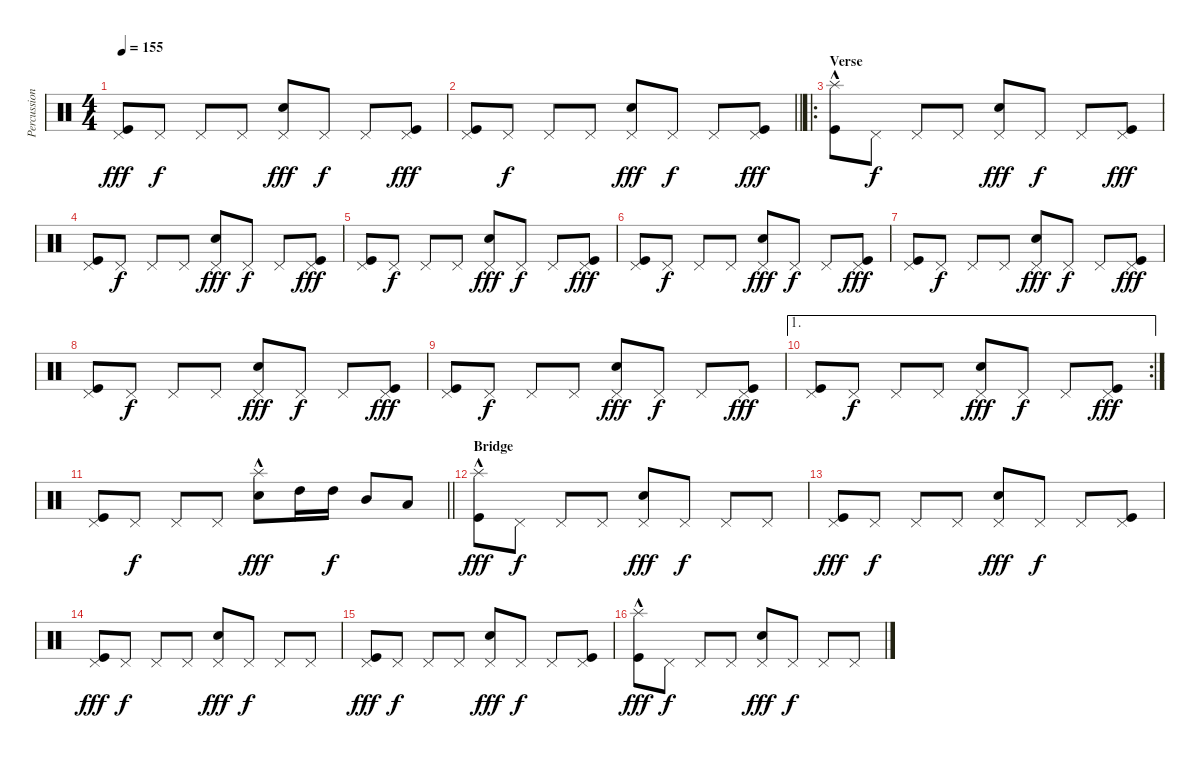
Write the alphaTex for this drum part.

\track ("Percussion" "Percussion") {instrument percussion}
\staff {score}
\articulation defaults
\ts (4 4)
\tempo 155
\clef neutral
\ks c
("Pedal Hi-Hat (hit)" "Kick (hit)").8{dy fff} "Pedal Hi-Hat (hit)".8{dy f} "Pedal Hi-Hat (hit)".8 "Pedal Hi-Hat (hit)".8 ("Pedal Hi-Hat (hit)" "Snare (hit) 2").8{dy fff} "Pedal Hi-Hat (hit)".8{dy f} "Pedal Hi-Hat (hit)".8 ("Pedal Hi-Hat (hit)" "Kick (hit)").8{dy fff} |
\barLineRight lightlight
("Pedal Hi-Hat (hit)" "Kick (hit)").8 "Pedal Hi-Hat (hit)".8{dy f} "Pedal Hi-Hat (hit)".8 "Pedal Hi-Hat (hit)".8 ("Pedal Hi-Hat (hit)" "Snare (hit) 2").8{dy fff} "Pedal Hi-Hat (hit)".8{dy f} "Pedal Hi-Hat (hit)".8 ("Pedal Hi-Hat (hit)" "Kick (hit)").8{dy fff} |
\ro
\section ("" "Verse")
("Splash (hit)"{hac} "Kick (hit)").8 "Pedal Hi-Hat (hit)".8{dy f} "Pedal Hi-Hat (hit)".8 "Pedal Hi-Hat (hit)".8 ("Pedal Hi-Hat (hit)" "Snare (hit) 2").8{dy fff} "Pedal Hi-Hat (hit)".8{dy f} "Pedal Hi-Hat (hit)".8 ("Pedal Hi-Hat (hit)" "Kick (hit)").8{dy fff} |
("Pedal Hi-Hat (hit)" "Kick (hit)").8 "Pedal Hi-Hat (hit)".8{dy f} "Pedal Hi-Hat (hit)".8 "Pedal Hi-Hat (hit)".8 ("Pedal Hi-Hat (hit)" "Snare (hit) 2").8{dy fff} "Pedal Hi-Hat (hit)".8{dy f} "Pedal Hi-Hat (hit)".8 ("Pedal Hi-Hat (hit)" "Kick (hit)").8{dy fff} |
("Pedal Hi-Hat (hit)" "Kick (hit)").8 "Pedal Hi-Hat (hit)".8{dy f} "Pedal Hi-Hat (hit)".8 "Pedal Hi-Hat (hit)".8 ("Pedal Hi-Hat (hit)" "Snare (hit) 2").8{dy fff} "Pedal Hi-Hat (hit)".8{dy f} "Pedal Hi-Hat (hit)".8 ("Pedal Hi-Hat (hit)" "Kick (hit)").8{dy fff} |
("Pedal Hi-Hat (hit)" "Kick (hit)").8 "Pedal Hi-Hat (hit)".8{dy f} "Pedal Hi-Hat (hit)".8 "Pedal Hi-Hat (hit)".8 ("Pedal Hi-Hat (hit)" "Snare (hit) 2").8{dy fff} "Pedal Hi-Hat (hit)".8{dy f} "Pedal Hi-Hat (hit)".8 ("Pedal Hi-Hat (hit)" "Kick (hit)").8{dy fff} |
("Pedal Hi-Hat (hit)" "Kick (hit)").8 "Pedal Hi-Hat (hit)".8{dy f} "Pedal Hi-Hat (hit)".8 "Pedal Hi-Hat (hit)".8 ("Pedal Hi-Hat (hit)" "Snare (hit) 2").8{dy fff} "Pedal Hi-Hat (hit)".8{dy f} "Pedal Hi-Hat (hit)".8 ("Pedal Hi-Hat (hit)" "Kick (hit)").8{dy fff} |
("Pedal Hi-Hat (hit)" "Kick (hit)").8 "Pedal Hi-Hat (hit)".8{dy f} "Pedal Hi-Hat (hit)".8 "Pedal Hi-Hat (hit)".8 ("Pedal Hi-Hat (hit)" "Snare (hit) 2").8{dy fff} "Pedal Hi-Hat (hit)".8{dy f} "Pedal Hi-Hat (hit)".8 ("Pedal Hi-Hat (hit)" "Kick (hit)").8{dy fff} |
("Pedal Hi-Hat (hit)" "Kick (hit)").8 "Pedal Hi-Hat (hit)".8{dy f} "Pedal Hi-Hat (hit)".8 "Pedal Hi-Hat (hit)".8 ("Pedal Hi-Hat (hit)" "Snare (hit) 2").8{dy fff} "Pedal Hi-Hat (hit)".8{dy f} "Pedal Hi-Hat (hit)".8 ("Pedal Hi-Hat (hit)" "Kick (hit)").8{dy fff} |
\ae 1
\rc 2
("Pedal Hi-Hat (hit)" "Kick (hit)").8 "Pedal Hi-Hat (hit)".8{dy f} "Pedal Hi-Hat (hit)".8 "Pedal Hi-Hat (hit)".8 ("Pedal Hi-Hat (hit)" "Snare (hit) 2").8{dy fff} "Pedal Hi-Hat (hit)".8{dy f} "Pedal Hi-Hat (hit)".8 ("Pedal Hi-Hat (hit)" "Kick (hit)").8{dy fff} |
\barLineRight lightlight
("Pedal Hi-Hat (hit)" "Kick (hit)").8 "Pedal Hi-Hat (hit)".8{dy f} "Pedal Hi-Hat (hit)".8 "Pedal Hi-Hat (hit)".8 ("Splash (hit)"{hac} "Snare (hit) 2").8{dy fff} "High Tom (hit)".16 "High Tom (hit)".16{dy f} "Mid Tom (hit)".8 "Low Tom (hit)".8 |
\section ("" "Bridge")
("Splash (hit)"{hac} "Kick (hit)").8{dy fff} "Pedal Hi-Hat (hit)".8{dy f} "Pedal Hi-Hat (hit)".8 "Pedal Hi-Hat (hit)".8 ("Pedal Hi-Hat (hit)" "Snare (hit) 2").8{dy fff} "Pedal Hi-Hat (hit)".8{dy f} "Pedal Hi-Hat (hit)".8 "Pedal Hi-Hat (hit)".8 |
("Pedal Hi-Hat (hit)" "Kick (hit)").8{dy fff} "Pedal Hi-Hat (hit)".8{dy f} "Pedal Hi-Hat (hit)".8 "Pedal Hi-Hat (hit)".8 ("Pedal Hi-Hat (hit)" "Snare (hit) 2").8{dy fff} "Pedal Hi-Hat (hit)".8{dy f} "Pedal Hi-Hat (hit)".8 ("Pedal Hi-Hat (hit)" "Kick (hit)").8 |
("Pedal Hi-Hat (hit)" "Kick (hit)").8{dy fff} "Pedal Hi-Hat (hit)".8{dy f} "Pedal Hi-Hat (hit)".8 "Pedal Hi-Hat (hit)".8 ("Pedal Hi-Hat (hit)" "Snare (hit) 2").8{dy fff} "Pedal Hi-Hat (hit)".8{dy f} "Pedal Hi-Hat (hit)".8 "Pedal Hi-Hat (hit)".8 |
("Pedal Hi-Hat (hit)" "Kick (hit)").8{dy fff} "Pedal Hi-Hat (hit)".8{dy f} "Pedal Hi-Hat (hit)".8 "Pedal Hi-Hat (hit)".8 ("Pedal Hi-Hat (hit)" "Snare (hit) 2").8{dy fff} "Pedal Hi-Hat (hit)".8{dy f} "Pedal Hi-Hat (hit)".8 ("Pedal Hi-Hat (hit)" "Kick (hit)").8 |
("Splash (hit)"{hac} "Kick (hit)").8{dy fff} "Pedal Hi-Hat (hit)".8{dy f} "Pedal Hi-Hat (hit)".8 "Pedal Hi-Hat (hit)".8 ("Pedal Hi-Hat (hit)" "Snare (hit) 2").8{dy fff} "Pedal Hi-Hat (hit)".8{dy f} "Pedal Hi-Hat (hit)".8 "Pedal Hi-Hat (hit)".8
